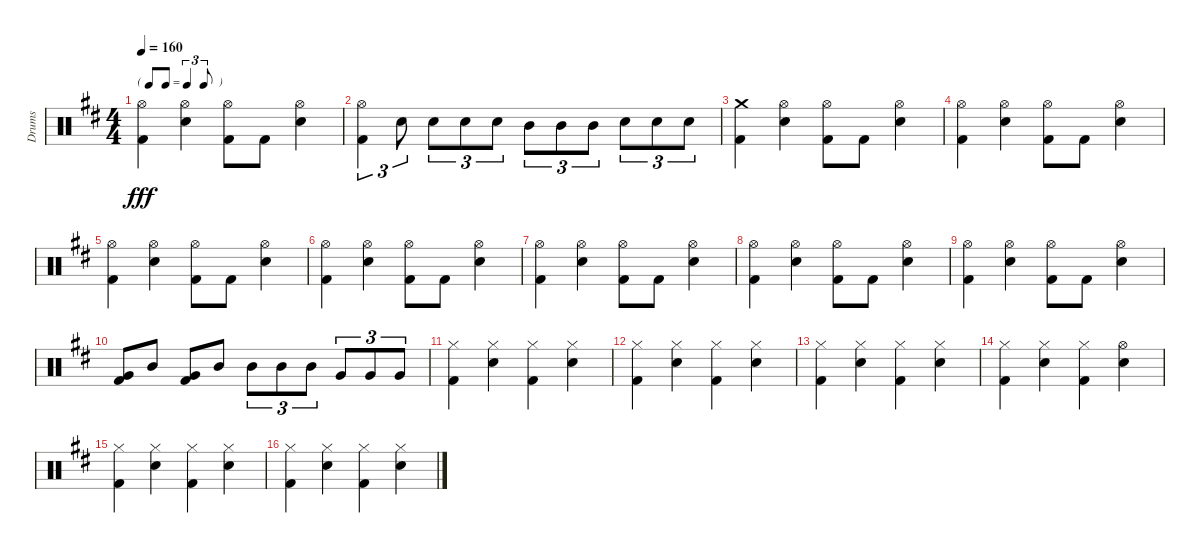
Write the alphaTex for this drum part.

\track ("Drums" "Drums") {instrument percussion}
\staff {score}
\articulation defaults
\ts (4 4)
\tf triplet8th
\tempo 160
\clef neutral
\ks d
("Hi-Hat (open)" "Kick (hit) 2").4{dy fff} ("Hi-Hat (open)" "Electric Snare (hit)").4 ("Hi-Hat (open)" "Kick (hit) 2").8 "Kick (hit) 2".8 ("Hi-Hat (open)" "Electric Snare (hit)").4 |
("Hi-Hat (open)" "Kick (hit) 2").4{tu (3 2)} "Electric Snare (hit)".8{tu (3 2)} "Electric Snare (hit)".8{tu (3 2)} "Electric Snare (hit)".8{tu (3 2)} "Electric Snare (hit)".8{tu (3 2)} "Mid Tom (hit)".8{tu (3 2)} "Mid Tom (hit)".8{tu (3 2)} "Mid Tom (hit)".8{tu (3 2)} "Electric Snare (hit)".8{tu (3 2)} "Electric Snare (hit)".8{tu (3 2)} "Electric Snare (hit)".8{tu (3 2)} |
("Crash medium (hit)" "Kick (hit) 2").4 ("Hi-Hat (open)" "Electric Snare (hit)").4 ("Hi-Hat (open)" "Kick (hit) 2").8 "Kick (hit) 2".8 ("Hi-Hat (open)" "Electric Snare (hit)").4 |
("Hi-Hat (open)" "Kick (hit) 2").4 ("Hi-Hat (open)" "Electric Snare (hit)").4 ("Hi-Hat (open)" "Kick (hit) 2").8 "Kick (hit) 2".8 ("Hi-Hat (open)" "Electric Snare (hit)").4 |
("Hi-Hat (open)" "Kick (hit) 2").4 ("Hi-Hat (open)" "Electric Snare (hit)").4 ("Hi-Hat (open)" "Kick (hit) 2").8 "Kick (hit) 2".8 ("Hi-Hat (open)" "Electric Snare (hit)").4 |
("Hi-Hat (open)" "Kick (hit) 2").4 ("Hi-Hat (open)" "Electric Snare (hit)").4 ("Hi-Hat (open)" "Kick (hit) 2").8 "Kick (hit) 2".8 ("Hi-Hat (open)" "Electric Snare (hit)").4 |
("Hi-Hat (open)" "Kick (hit) 2").4 ("Hi-Hat (open)" "Electric Snare (hit)").4 ("Hi-Hat (open)" "Kick (hit) 2").8 "Kick (hit) 2".8 ("Hi-Hat (open)" "Electric Snare (hit)").4 |
("Hi-Hat (open)" "Kick (hit) 2").4 ("Hi-Hat (open)" "Electric Snare (hit)").4 ("Hi-Hat (open)" "Kick (hit) 2").8 "Kick (hit) 2".8 ("Hi-Hat (open)" "Electric Snare (hit)").4 |
("Hi-Hat (open)" "Kick (hit) 2").4 ("Hi-Hat (open)" "Electric Snare (hit)").4 ("Hi-Hat (open)" "Kick (hit) 2").8 "Kick (hit) 2".8 ("Hi-Hat (open)" "Electric Snare (hit)").4 |
("Very Low Tom (hit)" "Kick (hit) 2").8 "Mid Tom (hit)".8 ("Very Low Tom (hit)" "Kick (hit) 2").8 "Mid Tom (hit)".8 "Mid Tom (hit)".8{tu (3 2)} "Mid Tom (hit)".8{tu (3 2)} "Mid Tom (hit)".8{tu (3 2)} "Very Low Tom (hit)".8{tu (3 2)} "Very Low Tom (hit)".8{tu (3 2)} "Very Low Tom (hit)".8{tu (3 2)} |
("Hi-Hat (closed)" "Kick (hit) 2").4 ("Hi-Hat (closed)" "Electric Snare (hit)").4 ("Hi-Hat (closed)" "Kick (hit) 2").4 ("Hi-Hat (closed)" "Electric Snare (hit)").4 |
("Hi-Hat (closed)" "Kick (hit) 2").4 ("Hi-Hat (closed)" "Electric Snare (hit)").4 ("Hi-Hat (closed)" "Kick (hit) 2").4 ("Hi-Hat (closed)" "Electric Snare (hit)").4 |
("Hi-Hat (closed)" "Kick (hit) 2").4 ("Hi-Hat (closed)" "Electric Snare (hit)").4 ("Hi-Hat (closed)" "Kick (hit) 2").4 ("Hi-Hat (closed)" "Electric Snare (hit)").4 |
("Hi-Hat (closed)" "Kick (hit) 2").4 ("Hi-Hat (closed)" "Electric Snare (hit)").4 ("Hi-Hat (closed)" "Kick (hit) 2").4 ("Hi-Hat (open)" "Electric Snare (hit)").4 |
("Hi-Hat (closed)" "Kick (hit) 2").4 ("Hi-Hat (closed)" "Electric Snare (hit)").4 ("Hi-Hat (closed)" "Kick (hit) 2").4 ("Hi-Hat (closed)" "Electric Snare (hit)").4 |
("Hi-Hat (closed)" "Kick (hit) 2").4 ("Hi-Hat (closed)" "Electric Snare (hit)").4 ("Hi-Hat (closed)" "Kick (hit) 2").4 ("Hi-Hat (closed)" "Electric Snare (hit)").4
